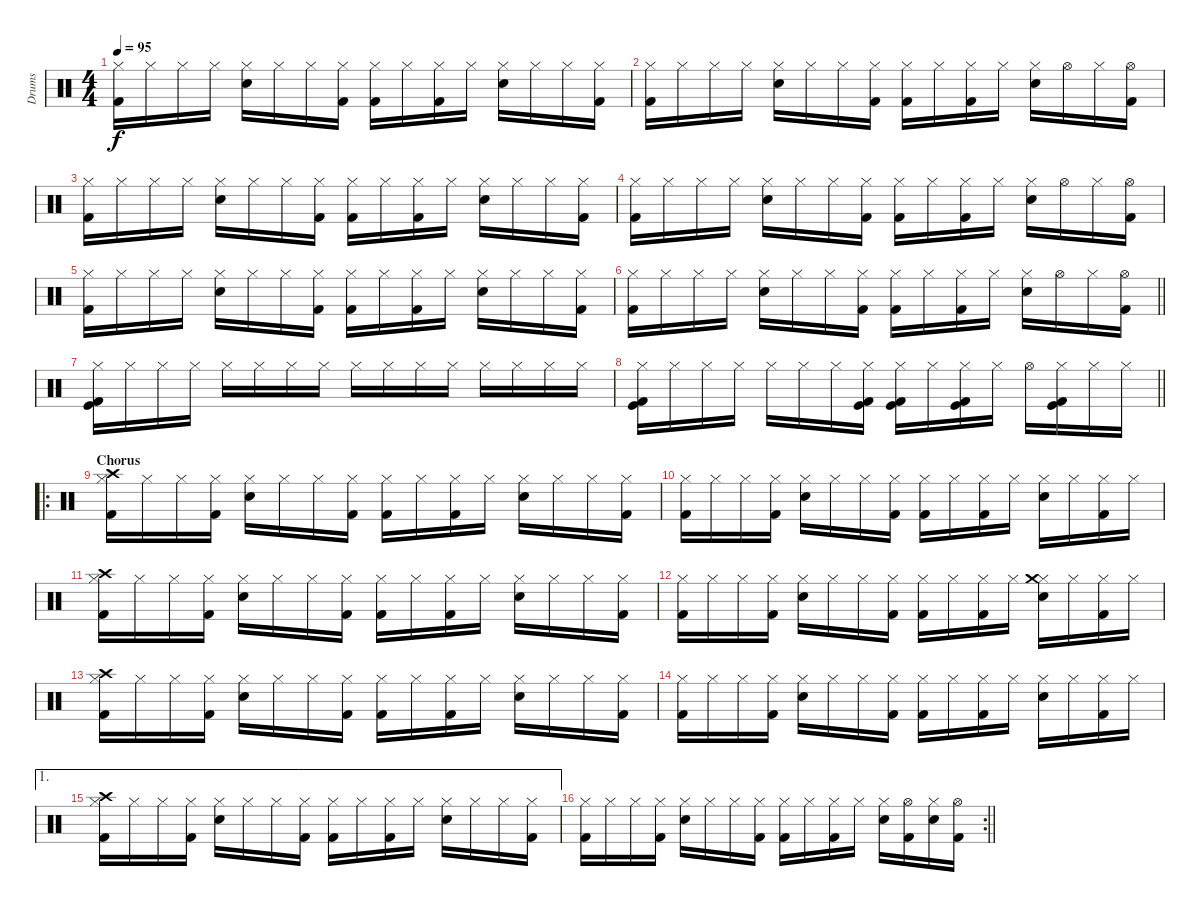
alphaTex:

\track ("Drums" "Drums") {instrument percussion}
\staff {score}
\articulation defaults
\ts (4 4)
\tempo 95
\clef neutral
\ks c
("Hi-Hat (closed)" "Kick (hit) 2").16{dy f} "Hi-Hat (closed)".16 "Hi-Hat (closed)".16 "Hi-Hat (closed)".16 ("Hi-Hat (closed)" "Electric Snare (hit)").16 "Hi-Hat (closed)".16 "Hi-Hat (closed)".16 ("Hi-Hat (closed)" "Kick (hit) 2").16 ("Hi-Hat (closed)" "Kick (hit) 2").16 "Hi-Hat (closed)".16 ("Hi-Hat (closed)" "Kick (hit) 2").16 "Hi-Hat (closed)".16 ("Hi-Hat (closed)" "Electric Snare (hit)").16 "Hi-Hat (closed)".16 "Hi-Hat (closed)".16 ("Kick (hit) 2" "Hi-Hat (closed)").16 |
("Hi-Hat (closed)" "Kick (hit) 2").16 "Hi-Hat (closed)".16 "Hi-Hat (closed)".16 "Hi-Hat (closed)".16 ("Hi-Hat (closed)" "Electric Snare (hit)").16 "Hi-Hat (closed)".16 "Hi-Hat (closed)".16 ("Hi-Hat (closed)" "Kick (hit) 2").16 ("Hi-Hat (closed)" "Kick (hit) 2").16 "Hi-Hat (closed)".16 ("Hi-Hat (closed)" "Kick (hit) 2").16 "Hi-Hat (closed)".16 ("Hi-Hat (closed)" "Electric Snare (hit)").16 "Hi-Hat (open)".16 "Hi-Hat (closed)".16 ("Hi-Hat (open)" "Kick (hit) 2").16 |
("Hi-Hat (closed)" "Kick (hit) 2").16 "Hi-Hat (closed)".16 "Hi-Hat (closed)".16 "Hi-Hat (closed)".16 ("Hi-Hat (closed)" "Electric Snare (hit)").16 "Hi-Hat (closed)".16 "Hi-Hat (closed)".16 ("Hi-Hat (closed)" "Kick (hit) 2").16 ("Hi-Hat (closed)" "Kick (hit) 2").16 "Hi-Hat (closed)".16 ("Hi-Hat (closed)" "Kick (hit) 2").16 "Hi-Hat (closed)".16 ("Hi-Hat (closed)" "Electric Snare (hit)").16 "Hi-Hat (closed)".16 "Hi-Hat (closed)".16 ("Kick (hit) 2" "Hi-Hat (closed)").16 |
("Hi-Hat (closed)" "Kick (hit) 2").16 "Hi-Hat (closed)".16 "Hi-Hat (closed)".16 "Hi-Hat (closed)".16 ("Hi-Hat (closed)" "Electric Snare (hit)").16 "Hi-Hat (closed)".16 "Hi-Hat (closed)".16 ("Hi-Hat (closed)" "Kick (hit) 2").16 ("Hi-Hat (closed)" "Kick (hit) 2").16 "Hi-Hat (closed)".16 ("Hi-Hat (closed)" "Kick (hit) 2").16 "Hi-Hat (closed)".16 ("Hi-Hat (closed)" "Electric Snare (hit)").16 "Hi-Hat (open)".16 "Hi-Hat (closed)".16 ("Hi-Hat (open)" "Kick (hit) 2").16 |
("Hi-Hat (closed)" "Kick (hit) 2").16 "Hi-Hat (closed)".16 "Hi-Hat (closed)".16 "Hi-Hat (closed)".16 ("Hi-Hat (closed)" "Electric Snare (hit)").16 "Hi-Hat (closed)".16 "Hi-Hat (closed)".16 ("Hi-Hat (closed)" "Kick (hit) 2").16 ("Hi-Hat (closed)" "Kick (hit) 2").16 "Hi-Hat (closed)".16 ("Hi-Hat (closed)" "Kick (hit) 2").16 "Hi-Hat (closed)".16 ("Hi-Hat (closed)" "Electric Snare (hit)").16 "Hi-Hat (closed)".16 "Hi-Hat (closed)".16 ("Kick (hit) 2" "Hi-Hat (closed)").16 |
\barLineRight lightlight
("Hi-Hat (closed)" "Kick (hit) 2").16 "Hi-Hat (closed)".16 "Hi-Hat (closed)".16 "Hi-Hat (closed)".16 ("Hi-Hat (closed)" "Electric Snare (hit)").16 "Hi-Hat (closed)".16 "Hi-Hat (closed)".16 ("Hi-Hat (closed)" "Kick (hit) 2").16 ("Hi-Hat (closed)" "Kick (hit) 2").16 "Hi-Hat (closed)".16 ("Hi-Hat (closed)" "Kick (hit) 2").16 "Hi-Hat (closed)".16 ("Hi-Hat (closed)" "Electric Snare (hit)").16 "Hi-Hat (open)".16 "Hi-Hat (closed)".16 ("Hi-Hat (open)" "Kick (hit) 2").16 |
("Hi-Hat (closed)" "Kick (hit) 2" "Kick (hit)").16 "Hi-Hat (closed)".16 "Hi-Hat (closed)".16 "Hi-Hat (closed)".16 "Hi-Hat (closed)".16 "Hi-Hat (closed)".16 "Hi-Hat (closed)".16 "Hi-Hat (closed)".16 "Hi-Hat (closed)".16 "Hi-Hat (closed)".16 "Hi-Hat (closed)".16 "Hi-Hat (closed)".16 "Hi-Hat (closed)".16 "Hi-Hat (closed)".16 "Hi-Hat (closed)".16 "Hi-Hat (closed)".16 |
\barLineRight lightlight
("Hi-Hat (closed)" "Kick (hit) 2" "Kick (hit)").16 "Hi-Hat (closed)".16 "Hi-Hat (closed)".16 "Hi-Hat (closed)".16 "Hi-Hat (closed)".16 "Hi-Hat (closed)".16 "Hi-Hat (closed)".16 ("Hi-Hat (closed)" "Kick (hit) 2" "Kick (hit)").16 ("Hi-Hat (closed)" "Kick (hit) 2" "Kick (hit)").16 "Hi-Hat (closed)".16 ("Hi-Hat (closed)" "Kick (hit) 2" "Kick (hit)").16 "Hi-Hat (closed)".16 "Hi-Hat (open)".16 ("Hi-Hat (closed)" "Kick (hit) 2" "Kick (hit)").16 "Hi-Hat (closed)".16 "Hi-Hat (closed)".16 |
\ro
\section ("" "Chorus")
("Hi-Hat (closed)" "Crash high (hit)" "Kick (hit) 2").16 "Hi-Hat (closed)".16 "Hi-Hat (closed)".16 ("Hi-Hat (closed)" "Kick (hit) 2").16 ("Hi-Hat (closed)" "Electric Snare (hit)").16 "Hi-Hat (closed)".16 "Hi-Hat (closed)".16 ("Hi-Hat (closed)" "Kick (hit) 2").16 ("Hi-Hat (closed)" "Kick (hit) 2").16 "Hi-Hat (closed)".16 ("Hi-Hat (closed)" "Kick (hit) 2").16 "Hi-Hat (closed)".16 ("Hi-Hat (closed)" "Electric Snare (hit)").16 "Hi-Hat (closed)".16 "Hi-Hat (closed)".16 ("Hi-Hat (closed)" "Kick (hit) 2").16 |
("Hi-Hat (closed)" "Kick (hit) 2").16 "Hi-Hat (closed)".16 "Hi-Hat (closed)".16 ("Hi-Hat (closed)" "Kick (hit) 2").16 ("Hi-Hat (closed)" "Electric Snare (hit)").16 "Hi-Hat (closed)".16 "Hi-Hat (closed)".16 ("Hi-Hat (closed)" "Kick (hit) 2").16 ("Hi-Hat (closed)" "Kick (hit) 2").16 "Hi-Hat (closed)".16 ("Hi-Hat (closed)" "Kick (hit) 2").16 "Hi-Hat (closed)".16 ("Hi-Hat (closed)" "Electric Snare (hit)").16 "Hi-Hat (closed)".16 ("Hi-Hat (closed)" "Kick (hit) 2").16 "Hi-Hat (closed)".16 |
("Hi-Hat (closed)" "Crash high (hit)" "Kick (hit) 2").16 "Hi-Hat (closed)".16 "Hi-Hat (closed)".16 ("Hi-Hat (closed)" "Kick (hit) 2").16 ("Hi-Hat (closed)" "Electric Snare (hit)").16 "Hi-Hat (closed)".16 "Hi-Hat (closed)".16 ("Hi-Hat (closed)" "Kick (hit) 2").16 ("Hi-Hat (closed)" "Kick (hit) 2").16 "Hi-Hat (closed)".16 ("Hi-Hat (closed)" "Kick (hit) 2").16 "Hi-Hat (closed)".16 ("Hi-Hat (closed)" "Electric Snare (hit)").16 "Hi-Hat (closed)".16 "Hi-Hat (closed)".16 ("Hi-Hat (closed)" "Kick (hit) 2").16 |
("Hi-Hat (closed)" "Kick (hit) 2").16 "Hi-Hat (closed)".16 "Hi-Hat (closed)".16 ("Hi-Hat (closed)" "Kick (hit) 2").16 ("Hi-Hat (closed)" "Electric Snare (hit)").16 "Hi-Hat (closed)".16 "Hi-Hat (closed)".16 ("Hi-Hat (closed)" "Kick (hit) 2").16 ("Hi-Hat (closed)" "Kick (hit) 2").16 "Hi-Hat (closed)".16 ("Hi-Hat (closed)" "Kick (hit) 2").16 "Hi-Hat (closed)".16 ("Hi-Hat (closed)" "Electric Snare (hit)" "Crash medium (hit)").16 "Hi-Hat (closed)".16 ("Hi-Hat (closed)" "Kick (hit) 2").16 "Hi-Hat (closed)".16 |
("Hi-Hat (closed)" "Crash high (hit)" "Kick (hit) 2").16 "Hi-Hat (closed)".16 "Hi-Hat (closed)".16 ("Hi-Hat (closed)" "Kick (hit) 2").16 ("Hi-Hat (closed)" "Electric Snare (hit)").16 "Hi-Hat (closed)".16 "Hi-Hat (closed)".16 ("Hi-Hat (closed)" "Kick (hit) 2").16 ("Hi-Hat (closed)" "Kick (hit) 2").16 "Hi-Hat (closed)".16 ("Hi-Hat (closed)" "Kick (hit) 2").16 "Hi-Hat (closed)".16 ("Hi-Hat (closed)" "Electric Snare (hit)").16 "Hi-Hat (closed)".16 "Hi-Hat (closed)".16 ("Hi-Hat (closed)" "Kick (hit) 2").16 |
("Hi-Hat (closed)" "Kick (hit) 2").16 "Hi-Hat (closed)".16 "Hi-Hat (closed)".16 ("Hi-Hat (closed)" "Kick (hit) 2").16 ("Hi-Hat (closed)" "Electric Snare (hit)").16 "Hi-Hat (closed)".16 "Hi-Hat (closed)".16 ("Hi-Hat (closed)" "Kick (hit) 2").16 ("Hi-Hat (closed)" "Kick (hit) 2").16 "Hi-Hat (closed)".16 ("Hi-Hat (closed)" "Kick (hit) 2").16 "Hi-Hat (closed)".16 ("Hi-Hat (closed)" "Electric Snare (hit)").16 "Hi-Hat (closed)".16 ("Hi-Hat (closed)" "Kick (hit) 2").16 "Hi-Hat (closed)".16 |
\ae 1
("Hi-Hat (closed)" "Crash high (hit)" "Kick (hit) 2").16 "Hi-Hat (closed)".16 "Hi-Hat (closed)".16 ("Hi-Hat (closed)" "Kick (hit) 2").16 ("Hi-Hat (closed)" "Electric Snare (hit)").16 "Hi-Hat (closed)".16 "Hi-Hat (closed)".16 ("Hi-Hat (closed)" "Kick (hit) 2").16 ("Hi-Hat (closed)" "Kick (hit) 2").16 "Hi-Hat (closed)".16 ("Hi-Hat (closed)" "Kick (hit) 2").16 "Hi-Hat (closed)".16 ("Hi-Hat (closed)" "Electric Snare (hit)").16 "Hi-Hat (closed)".16 "Hi-Hat (closed)".16 ("Hi-Hat (closed)" "Kick (hit) 2").16 |
\rc 2
\barLineRight lightlight
("Hi-Hat (closed)" "Kick (hit) 2").16 "Hi-Hat (closed)".16 "Hi-Hat (closed)".16 ("Hi-Hat (closed)" "Kick (hit) 2").16 ("Hi-Hat (closed)" "Electric Snare (hit)").16 "Hi-Hat (closed)".16 "Hi-Hat (closed)".16 ("Hi-Hat (closed)" "Kick (hit) 2").16 ("Hi-Hat (closed)" "Kick (hit) 2").16 "Hi-Hat (closed)".16 ("Hi-Hat (closed)" "Kick (hit) 2").16 "Hi-Hat (closed)".16 ("Hi-Hat (closed)" "Electric Snare (hit)").16 ("Hi-Hat (open)" "Kick (hit) 2").16 ("Hi-Hat (closed)" "Electric Snare (hit)").16 ("Hi-Hat (open)" "Kick (hit) 2").16
